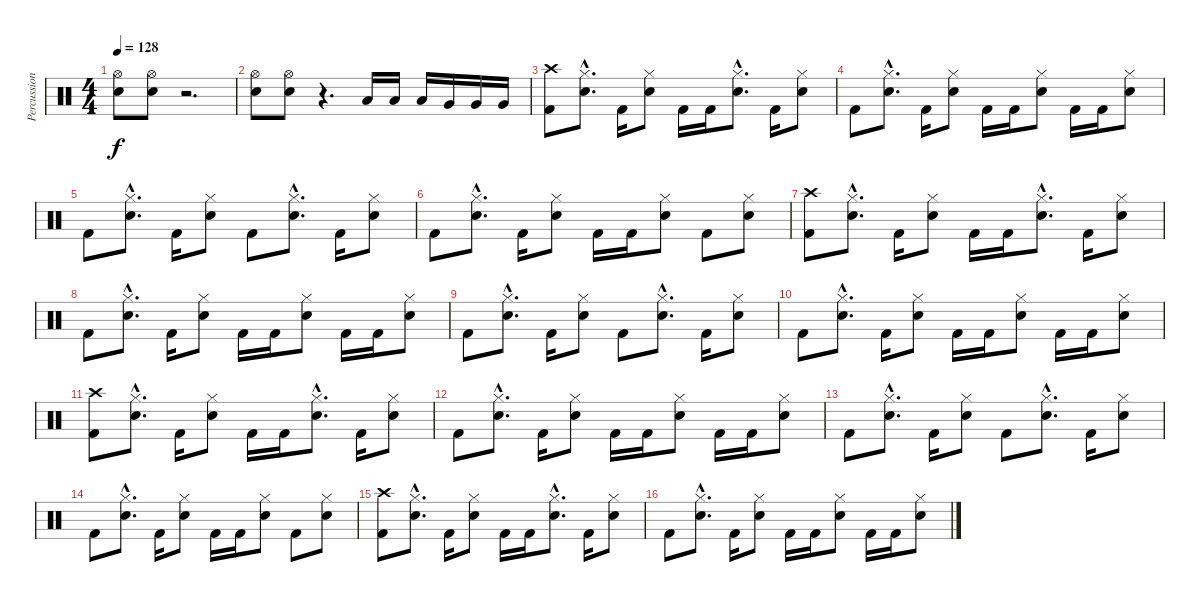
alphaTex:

\track ("Percussions" "Percussion") {instrument percussion}
\staff {score}
\articulation defaults
\ts (4 4)
\tempo 128
\clef neutral
\ks c
("Hi-Hat (open)" "Electric Snare (hit)").8{dy f} ("Hi-Hat (open)" "Electric Snare (hit)").8 r.2{d} |
("Hi-Hat (open)" "Electric Snare (hit)").8 ("Hi-Hat (open)" "Electric Snare (hit)").8 r.4{d} "Low Floor Tom (hit)".16 "Low Tom (hit)".16 "Low Tom (hit)".16 "Very Low Tom (hit)".16 "Very Low Tom (hit)".16 "Very Low Tom (hit)".16 |
("Crash high (hit)" "Kick (hit) 2").8 ("Hi-Hat (closed)"{hac} "Electric Snare (hit)"{hac}).8{d} "Kick (hit) 2".16 ("Hi-Hat (closed)" "Electric Snare (hit)").8 "Kick (hit) 2".16 "Kick (hit) 2".16 ("Hi-Hat (closed)"{hac} "Electric Snare (hit)"{hac}).8{d} "Kick (hit) 2".16 ("Hi-Hat (closed)" "Electric Snare (hit)").8 |
"Kick (hit) 2".8 ("Hi-Hat (closed)"{hac} "Electric Snare (hit)"{hac}).8{d} "Kick (hit) 2".16 ("Hi-Hat (closed)" "Electric Snare (hit)").8 "Kick (hit) 2".16 "Kick (hit) 2".16 ("Hi-Hat (closed)" "Electric Snare (hit)").8 "Kick (hit) 2".16 "Kick (hit) 2".16 ("Hi-Hat (closed)" "Electric Snare (hit)").8 |
"Kick (hit) 2".8 ("Hi-Hat (closed)"{hac} "Electric Snare (hit)"{hac}).8{d} "Kick (hit) 2".16 ("Hi-Hat (closed)" "Electric Snare (hit)").8 "Kick (hit) 2".8 ("Hi-Hat (closed)"{hac} "Electric Snare (hit)"{hac}).8{d} "Kick (hit) 2".16 ("Hi-Hat (closed)" "Electric Snare (hit)").8 |
"Kick (hit) 2".8 ("Hi-Hat (closed)"{hac} "Electric Snare (hit)"{hac}).8{d} "Kick (hit) 2".16 ("Hi-Hat (closed)" "Electric Snare (hit)").8 "Kick (hit) 2".16 "Kick (hit) 2".16 ("Hi-Hat (closed)" "Electric Snare (hit)").8 "Kick (hit) 2".8 ("Hi-Hat (closed)" "Electric Snare (hit)").8 |
("Crash high (hit)" "Kick (hit) 2").8 ("Hi-Hat (closed)"{hac} "Electric Snare (hit)"{hac}).8{d} "Kick (hit) 2".16 ("Hi-Hat (closed)" "Electric Snare (hit)").8 "Kick (hit) 2".16 "Kick (hit) 2".16 ("Hi-Hat (closed)"{hac} "Electric Snare (hit)"{hac}).8{d} "Kick (hit) 2".16 ("Hi-Hat (closed)" "Electric Snare (hit)").8 |
"Kick (hit) 2".8 ("Hi-Hat (closed)"{hac} "Electric Snare (hit)"{hac}).8{d} "Kick (hit) 2".16 ("Hi-Hat (closed)" "Electric Snare (hit)").8 "Kick (hit) 2".16 "Kick (hit) 2".16 ("Hi-Hat (closed)" "Electric Snare (hit)").8 "Kick (hit) 2".16 "Kick (hit) 2".16 ("Hi-Hat (closed)" "Electric Snare (hit)").8 |
"Kick (hit) 2".8 ("Hi-Hat (closed)"{hac} "Electric Snare (hit)"{hac}).8{d} "Kick (hit) 2".16 ("Hi-Hat (closed)" "Electric Snare (hit)").8 "Kick (hit) 2".8 ("Hi-Hat (closed)"{hac} "Electric Snare (hit)"{hac}).8{d} "Kick (hit) 2".16 ("Hi-Hat (closed)" "Electric Snare (hit)").8 |
"Kick (hit) 2".8 ("Hi-Hat (closed)"{hac} "Electric Snare (hit)"{hac}).8{d} "Kick (hit) 2".16 ("Hi-Hat (closed)" "Electric Snare (hit)").8 "Kick (hit) 2".16 "Kick (hit) 2".16 ("Hi-Hat (closed)" "Electric Snare (hit)").8 "Kick (hit) 2".16 "Kick (hit) 2".16 ("Hi-Hat (closed)" "Electric Snare (hit)").8 |
("Crash high (hit)" "Kick (hit) 2").8 ("Hi-Hat (closed)"{hac} "Electric Snare (hit)"{hac}).8{d} "Kick (hit) 2".16 ("Hi-Hat (closed)" "Electric Snare (hit)").8 "Kick (hit) 2".16 "Kick (hit) 2".16 ("Hi-Hat (closed)"{hac} "Electric Snare (hit)"{hac}).8{d} "Kick (hit) 2".16 ("Hi-Hat (closed)" "Electric Snare (hit)").8 |
"Kick (hit) 2".8 ("Hi-Hat (closed)"{hac} "Electric Snare (hit)"{hac}).8{d} "Kick (hit) 2".16 ("Hi-Hat (closed)" "Electric Snare (hit)").8 "Kick (hit) 2".16 "Kick (hit) 2".16 ("Hi-Hat (closed)" "Electric Snare (hit)").8 "Kick (hit) 2".16 "Kick (hit) 2".16 ("Hi-Hat (closed)" "Electric Snare (hit)").8 |
"Kick (hit) 2".8 ("Hi-Hat (closed)"{hac} "Electric Snare (hit)"{hac}).8{d} "Kick (hit) 2".16 ("Hi-Hat (closed)" "Electric Snare (hit)").8 "Kick (hit) 2".8 ("Hi-Hat (closed)"{hac} "Electric Snare (hit)"{hac}).8{d} "Kick (hit) 2".16 ("Hi-Hat (closed)" "Electric Snare (hit)").8 |
"Kick (hit) 2".8 ("Hi-Hat (closed)"{hac} "Electric Snare (hit)"{hac}).8{d} "Kick (hit) 2".16 ("Hi-Hat (closed)" "Electric Snare (hit)").8 "Kick (hit) 2".16 "Kick (hit) 2".16 ("Hi-Hat (closed)" "Electric Snare (hit)").8 "Kick (hit) 2".8 ("Hi-Hat (closed)" "Electric Snare (hit)").8 |
("Crash high (hit)" "Kick (hit) 2").8 ("Hi-Hat (closed)"{hac} "Electric Snare (hit)"{hac}).8{d} "Kick (hit) 2".16 ("Hi-Hat (closed)" "Electric Snare (hit)").8 "Kick (hit) 2".16 "Kick (hit) 2".16 ("Hi-Hat (closed)"{hac} "Electric Snare (hit)"{hac}).8{d} "Kick (hit) 2".16 ("Hi-Hat (closed)" "Electric Snare (hit)").8 |
"Kick (hit) 2".8 ("Hi-Hat (closed)"{hac} "Electric Snare (hit)"{hac}).8{d} "Kick (hit) 2".16 ("Hi-Hat (closed)" "Electric Snare (hit)").8 "Kick (hit) 2".16 "Kick (hit) 2".16 ("Hi-Hat (closed)" "Electric Snare (hit)").8 "Kick (hit) 2".16 "Kick (hit) 2".16 ("Hi-Hat (closed)" "Electric Snare (hit)").8
